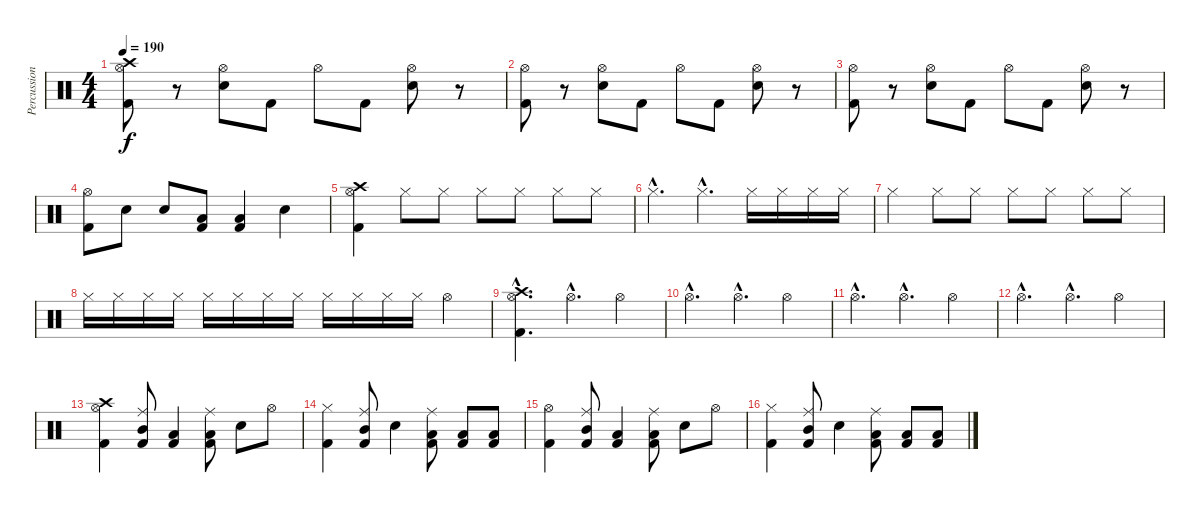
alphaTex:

\track ("Percussioni" "Percussion") {instrument percussion}
\staff {score}
\articulation defaults
\ts (4 4)
\tempo 190
\clef neutral
\ks c
("Hi-Hat (open)" "Crash high (hit)" "Kick (hit) 2").8{dy f} r.8 ("Hi-Hat (open)" "Snare (hit) 2").8 "Kick (hit) 2".8 "Hi-Hat (open)".8 "Kick (hit) 2".8 ("Hi-Hat (open)" "Snare (hit) 2").8 r.8 |
("Hi-Hat (open)" "Kick (hit) 2").8 r.8 ("Hi-Hat (open)" "Snare (hit) 2").8 "Kick (hit) 2".8 "Hi-Hat (open)".8 "Kick (hit) 2".8 ("Hi-Hat (open)" "Snare (hit) 2").8 r.8 |
("Hi-Hat (open)" "Kick (hit) 2").8 r.8 ("Hi-Hat (open)" "Snare (hit) 2").8 "Kick (hit) 2".8 "Hi-Hat (open)".8 "Kick (hit) 2".8 ("Hi-Hat (open)" "Snare (hit) 2").8 r.8 |
("Kick (hit) 2" "Hi-Hat (open)").8 "Snare (hit) 2".8 "Snare (hit) 2".8 ("Low Tom (hit)" "Kick (hit) 2").8 ("Kick (hit) 2" "Low Tom (hit)").4 "Snare (hit) 2".4 |
("Crash high (hit)" "Hi-Hat (open)" "Kick (hit) 2").4 "Hi-Hat (closed)".8 "Hi-Hat (closed)".8 "Hi-Hat (closed)".8 "Hi-Hat (closed)".8 "Hi-Hat (closed)".8 "Hi-Hat (closed)".8 |
"Hi-Hat (closed)"{hac}.4{d} "Hi-Hat (closed)"{hac}.4{d} "Hi-Hat (closed)".16 "Hi-Hat (closed)".16 "Hi-Hat (closed)".16 "Hi-Hat (closed)".16 |
"Hi-Hat (closed)".4 "Hi-Hat (closed)".8 "Hi-Hat (closed)".8 "Hi-Hat (closed)".8 "Hi-Hat (closed)".8 "Hi-Hat (closed)".8 "Hi-Hat (closed)".8 |
"Hi-Hat (closed)".16 "Hi-Hat (closed)".16 "Hi-Hat (closed)".16 "Hi-Hat (closed)".16 "Hi-Hat (closed)".16 "Hi-Hat (closed)".16 "Hi-Hat (closed)".16 "Hi-Hat (closed)".16 "Hi-Hat (closed)".16 "Hi-Hat (closed)".16 "Hi-Hat (closed)".16 "Hi-Hat (closed)".16 "Hi-Hat (open)".4 |
("Hi-Hat (open)"{hac} "Kick (hit) 2"{hac} "Crash high (hit)"{hac}).4{d} "Hi-Hat (open)"{hac}.4{d} "Hi-Hat (open)".4 |
"Hi-Hat (open)"{hac}.4{d} "Hi-Hat (open)"{hac}.4{d} "Hi-Hat (open)".4 |
"Hi-Hat (open)"{hac}.4{d} "Hi-Hat (open)"{hac}.4{d} "Hi-Hat (open)".4 |
"Hi-Hat (open)"{hac}.4{d} "Hi-Hat (open)"{hac}.4{d} "Hi-Hat (open)".4 |
("Kick (hit) 2" "Crash high (hit)" "Hi-Hat (open)").4 ("Ride (middle)" "Kick (hit) 2" "Mid Tom (hit)").8 ("Low Tom (hit)" "Kick (hit) 2").4 ("Ride (middle)" "Kick (hit) 2" "Low Tom (hit)").8 "Snare (hit) 2".8 "Hi-Hat (open)".8 |
("Kick (hit) 2" "Hi-Hat (closed)").4 ("Ride (middle)" "Kick (hit) 2" "Mid Tom (hit)").8 "Snare (hit) 2".4 ("Ride (middle)" "Kick (hit) 2" "Low Tom (hit)").8 ("Low Tom (hit)" "Kick (hit) 2").8 ("Low Tom (hit)" "Kick (hit) 2").8 |
("Kick (hit) 2" "Hi-Hat (open)").4 ("Ride (middle)" "Kick (hit) 2" "Mid Tom (hit)").8 ("Low Tom (hit)" "Kick (hit) 2").4 ("Ride (middle)" "Kick (hit) 2" "Low Tom (hit)").8 "Snare (hit) 2".8 "Hi-Hat (open)".8 |
("Kick (hit) 2" "Hi-Hat (closed)").4 ("Ride (middle)" "Kick (hit) 2" "Mid Tom (hit)").8 "Snare (hit) 2".4 ("Ride (middle)" "Kick (hit) 2" "Low Tom (hit)").8 ("Low Tom (hit)" "Kick (hit) 2").8 ("Low Tom (hit)" "Kick (hit) 2").8
